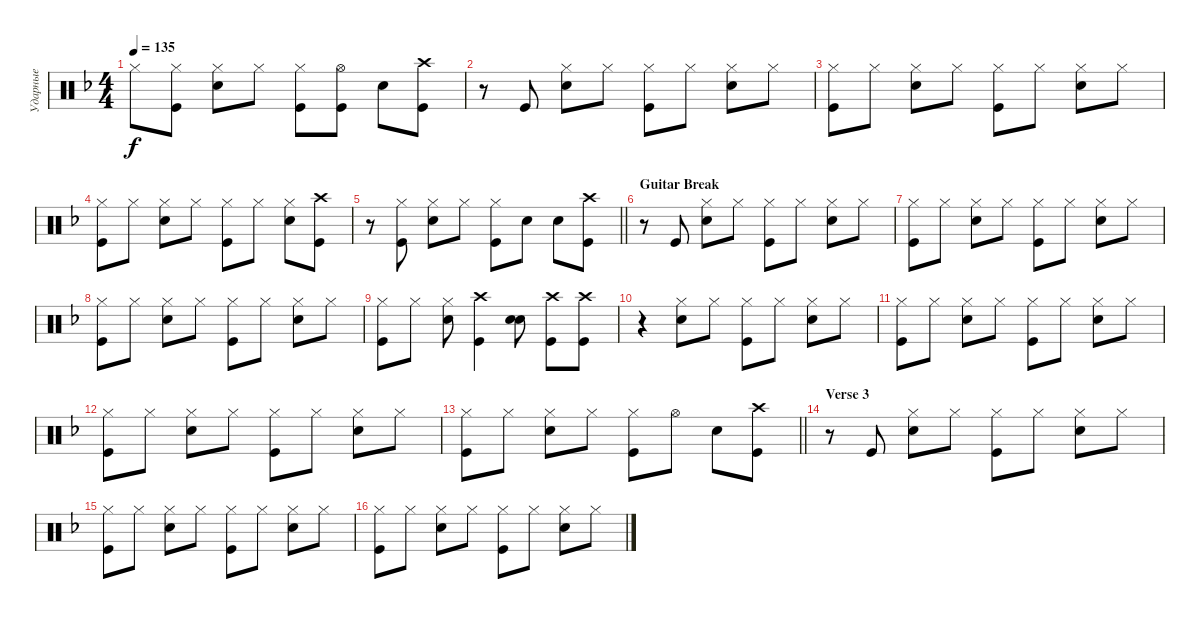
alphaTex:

\track ("Ударные" "Ударные") {instrument percussion}
\staff {score}
\articulation defaults
\ts (4 4)
\tempo 135
\clef neutral
\ks dminor "Hi-Hat (closed)".8{dy f}
("Hi-Hat (closed)" "Kick (hit)").8 ("Hi-Hat (closed)" "Snare (hit) 2").8 "Hi-Hat (closed)".8 ("Hi-Hat (closed)" "Kick (hit)").8 ("Hi-Hat (open)" "Kick (hit)").8 "Snare (hit) 2".8 ("Kick (hit)" "Crash high (hit)").8 |
r.8 "Kick (hit)".8 ("Hi-Hat (closed)" "Snare (hit) 2").8 "Hi-Hat (closed)".8 ("Hi-Hat (closed)" "Kick (hit)").8 "Hi-Hat (closed)".8 ("Hi-Hat (closed)" "Snare (hit) 2").8 "Hi-Hat (closed)".8 |
("Hi-Hat (closed)" "Kick (hit)").8 "Hi-Hat (closed)".8 ("Hi-Hat (closed)" "Snare (hit) 2").8 "Hi-Hat (closed)".8 ("Hi-Hat (closed)" "Kick (hit)").8 "Hi-Hat (closed)".8 ("Hi-Hat (closed)" "Snare (hit) 2").8 "Hi-Hat (closed)".8 |
("Hi-Hat (closed)" "Kick (hit)").8 "Hi-Hat (closed)".8 ("Hi-Hat (closed)" "Snare (hit) 2").8 "Hi-Hat (closed)".8 ("Hi-Hat (closed)" "Kick (hit)").8 "Hi-Hat (closed)".8 ("Hi-Hat (closed)" "Snare (hit) 2").8 ("Crash high (hit)" "Kick (hit)").8 |
\barLineRight lightlight
r.8 ("Hi-Hat (closed)" "Kick (hit)").8 ("Hi-Hat (closed)" "Snare (hit) 2").8 "Hi-Hat (closed)".8 ("Hi-Hat (closed)" "Kick (hit)").8 "Snare (hit) 2".8 "Snare (hit) 2".8 ("Kick (hit)" "Crash high (hit)").8 |
\section ("" "Guitar Break")
r.8 "Kick (hit)".8 ("Snare (hit) 2" "Hi-Hat (closed)").8 "Hi-Hat (closed)".8 ("Hi-Hat (closed)" "Kick (hit)").8 "Hi-Hat (closed)".8 ("Hi-Hat (closed)" "Snare (hit) 2").8 "Hi-Hat (closed)".8 |
("Hi-Hat (closed)" "Kick (hit)").8 "Hi-Hat (closed)".8 ("Hi-Hat (closed)" "Snare (hit) 2").8 "Hi-Hat (closed)".8 ("Hi-Hat (closed)" "Kick (hit)").8 "Hi-Hat (closed)".8 ("Hi-Hat (closed)" "Snare (hit) 2").8 "Hi-Hat (closed)".8 |
("Hi-Hat (closed)" "Kick (hit)").8 "Hi-Hat (closed)".8 ("Hi-Hat (closed)" "Snare (hit) 2").8 "Hi-Hat (closed)".8 ("Hi-Hat (closed)" "Kick (hit)").8 "Hi-Hat (closed)".8 ("Hi-Hat (closed)" "Snare (hit) 2").8 "Hi-Hat (closed)".8 |
("Hi-Hat (closed)" "Kick (hit)").8 "Hi-Hat (closed)".8 ("Hi-Hat (closed)" "Snare (hit) 2").8 ("Kick (hit)" "Crash high (hit)").4 ("Snare (hit) 2" "Snare (hit) 2").8{bd 240} ("Kick (hit)" "Crash high (hit)").8 ("Kick (hit)" "Crash high (hit)").8 |
r.4 ("Hi-Hat (closed)" "Snare (hit) 2").8 "Hi-Hat (closed)".8 ("Hi-Hat (closed)" "Kick (hit)").8 "Hi-Hat (closed)".8 ("Hi-Hat (closed)" "Snare (hit) 2").8 "Hi-Hat (closed)".8 |
("Hi-Hat (closed)" "Kick (hit)").8 "Hi-Hat (closed)".8 ("Hi-Hat (closed)" "Snare (hit) 2").8 "Hi-Hat (closed)".8 ("Hi-Hat (closed)" "Kick (hit)").8 "Hi-Hat (closed)".8 ("Hi-Hat (closed)" "Snare (hit) 2").8 "Hi-Hat (closed)".8 |
("Hi-Hat (closed)" "Kick (hit)").8 "Hi-Hat (closed)".8 ("Hi-Hat (closed)" "Snare (hit) 2").8 "Hi-Hat (closed)".8 ("Hi-Hat (closed)" "Kick (hit)").8 "Hi-Hat (closed)".8 ("Hi-Hat (closed)" "Snare (hit) 2").8 "Hi-Hat (closed)".8 |
\barLineRight lightlight
("Hi-Hat (closed)" "Kick (hit)").8 "Hi-Hat (closed)".8 ("Hi-Hat (closed)" "Snare (hit) 2").8 "Hi-Hat (closed)".8 ("Hi-Hat (closed)" "Kick (hit)").8 "Hi-Hat (open)".8 "Snare (hit) 2".8 ("Kick (hit)" "Crash high (hit)").8 |
\section ("" "Verse 3")
r.8 "Kick (hit)".8 ("Hi-Hat (closed)" "Snare (hit) 2").8 "Hi-Hat (closed)".8 ("Hi-Hat (closed)" "Kick (hit)").8 "Hi-Hat (closed)".8 ("Hi-Hat (closed)" "Snare (hit) 2").8 "Hi-Hat (closed)".8 |
("Hi-Hat (closed)" "Kick (hit)").8 "Hi-Hat (closed)".8 ("Hi-Hat (closed)" "Snare (hit) 2").8 "Hi-Hat (closed)".8 ("Hi-Hat (closed)" "Kick (hit)").8 "Hi-Hat (closed)".8 ("Hi-Hat (closed)" "Snare (hit) 2").8 "Hi-Hat (closed)".8 |
("Hi-Hat (closed)" "Kick (hit)").8 "Hi-Hat (closed)".8 ("Hi-Hat (closed)" "Snare (hit) 2").8 "Hi-Hat (closed)".8 ("Hi-Hat (closed)" "Kick (hit)").8 "Hi-Hat (closed)".8 ("Hi-Hat (closed)" "Snare (hit) 2").8 "Hi-Hat (closed)".8
